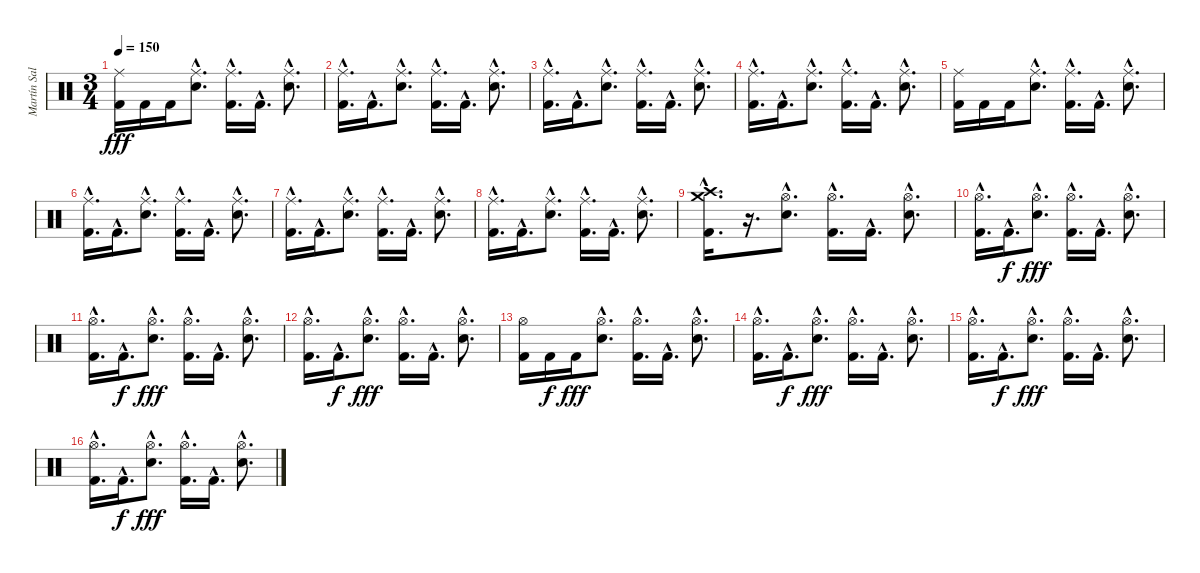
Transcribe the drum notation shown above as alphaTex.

\track ("Martín Salariato" "Martín Sal") {instrument percussion}
\staff {score}
\articulation defaults
\ts (3 4)
\tempo 150
\clef neutral
\ks c
("Ride (middle)" "Kick (hit) 2").16{dy fff} "Kick (hit) 2".16 "Kick (hit) 2".16 ("Ride (middle)"{hac} "Snare (hit) 2"{hac}).8{d} ("Ride (middle)"{hac} "Kick (hit) 2"{hac}).16{d} "Kick (hit) 2"{hac}.16{d} ("Ride (middle)"{hac} "Snare (hit) 2"{hac}).8{d} |
("Ride (middle)"{hac} "Kick (hit) 2"{hac}).16{d} "Kick (hit) 2"{hac}.16{d} ("Ride (middle)"{hac} "Snare (hit) 2"{hac}).8{d} ("Ride (middle)"{hac} "Kick (hit) 2"{hac}).16{d} "Kick (hit) 2"{hac}.16{d} ("Ride (middle)"{hac} "Snare (hit) 2"{hac}).8{d} |
("Ride (middle)"{hac} "Kick (hit) 2"{hac}).16{d} "Kick (hit) 2"{hac}.16{d} ("Ride (middle)"{hac} "Snare (hit) 2"{hac}).8{d} ("Ride (middle)"{hac} "Kick (hit) 2"{hac}).16{d} "Kick (hit) 2"{hac}.16{d} ("Ride (middle)"{hac} "Snare (hit) 2"{hac}).8{d} |
("Ride (middle)"{hac} "Kick (hit) 2"{hac}).16{d} "Kick (hit) 2"{hac}.16{d} ("Ride (middle)"{hac} "Snare (hit) 2"{hac}).8{d} ("Ride (middle)"{hac} "Kick (hit) 2"{hac}).16{d} "Kick (hit) 2"{hac}.16{d} ("Ride (middle)"{hac} "Snare (hit) 2"{hac}).8{d} |
("Ride (middle)" "Kick (hit) 2").16 "Kick (hit) 2".16 "Kick (hit) 2".16 ("Ride (middle)"{hac} "Snare (hit) 2"{hac}).8{d} ("Ride (middle)"{hac} "Kick (hit) 2"{hac}).16{d} "Kick (hit) 2"{hac}.16{d} ("Ride (middle)"{hac} "Snare (hit) 2"{hac}).8{d} |
("Ride (middle)"{hac} "Kick (hit) 2"{hac}).16{d} "Kick (hit) 2"{hac}.16{d} ("Ride (middle)"{hac} "Snare (hit) 2"{hac}).8{d} ("Ride (middle)"{hac} "Kick (hit) 2"{hac}).16{d} "Kick (hit) 2"{hac}.16{d} ("Ride (middle)"{hac} "Snare (hit) 2"{hac}).8{d} |
("Ride (middle)"{hac} "Kick (hit) 2"{hac}).16{d} "Kick (hit) 2"{hac}.16{d} ("Ride (middle)"{hac} "Snare (hit) 2"{hac}).8{d} ("Ride (middle)"{hac} "Kick (hit) 2"{hac}).16{d} "Kick (hit) 2"{hac}.16{d} ("Ride (middle)"{hac} "Snare (hit) 2"{hac}).8{d} |
("Ride (middle)"{hac} "Kick (hit) 2"{hac}).16{d} "Kick (hit) 2"{hac}.16{d} ("Ride (middle)"{hac} "Snare (hit) 2"{hac}).8{d} ("Ride (middle)"{hac} "Kick (hit) 2"{hac}).16{d} "Kick (hit) 2"{hac}.16{d} ("Ride (middle)"{hac} "Snare (hit) 2"{hac}).8{d} |
("Crash medium (hit)"{hac} "Crash high (hit)"{hac} "Kick (hit) 2"{hac}).16{d} r.16{d} ("Hi-Hat (open)"{hac} "Snare (hit) 2"{hac}).8{d} ("Hi-Hat (open)"{hac} "Kick (hit) 2"{hac}).16{d} "Kick (hit) 2"{hac}.16{d} ("Hi-Hat (open)"{hac} "Snare (hit) 2"{hac}).8{d} |
("Hi-Hat (open)"{hac} "Kick (hit) 2"{hac}).16{d} "Kick (hit) 2"{hac}.16{d dy f} ("Hi-Hat (open)"{hac} "Snare (hit) 2"{hac}).8{d dy fff} ("Hi-Hat (open)"{hac} "Kick (hit) 2"{hac}).16{d} "Kick (hit) 2"{hac}.16{d} ("Hi-Hat (open)"{hac} "Snare (hit) 2"{hac}).8{d} |
("Hi-Hat (open)"{hac} "Kick (hit) 2"{hac}).16{d} "Kick (hit) 2"{hac}.16{d dy f} ("Hi-Hat (open)"{hac} "Snare (hit) 2"{hac}).8{d dy fff} ("Hi-Hat (open)"{hac} "Kick (hit) 2"{hac}).16{d} "Kick (hit) 2"{hac}.16{d} ("Hi-Hat (open)"{hac} "Snare (hit) 2"{hac}).8{d} |
("Hi-Hat (open)"{hac} "Kick (hit) 2"{hac}).16{d} "Kick (hit) 2"{hac}.16{d dy f} ("Hi-Hat (open)"{hac} "Snare (hit) 2"{hac}).8{d dy fff} ("Hi-Hat (open)"{hac} "Kick (hit) 2"{hac}).16{d} "Kick (hit) 2"{hac}.16{d} ("Hi-Hat (open)"{hac} "Snare (hit) 2"{hac}).8{d} |
("Hi-Hat (open)" "Kick (hit) 2").16 "Kick (hit) 2".16{dy f} "Kick (hit) 2".16{dy fff} ("Hi-Hat (open)"{hac} "Snare (hit) 2"{hac}).8{d} ("Hi-Hat (open)"{hac} "Kick (hit) 2"{hac}).16{d} "Kick (hit) 2"{hac}.16{d} ("Hi-Hat (open)"{hac} "Snare (hit) 2"{hac}).8{d} |
("Hi-Hat (open)"{hac} "Kick (hit) 2"{hac}).16{d} "Kick (hit) 2"{hac}.16{d dy f} ("Hi-Hat (open)"{hac} "Snare (hit) 2"{hac}).8{d dy fff} ("Hi-Hat (open)"{hac} "Kick (hit) 2"{hac}).16{d} "Kick (hit) 2"{hac}.16{d} ("Hi-Hat (open)"{hac} "Snare (hit) 2"{hac}).8{d} |
("Hi-Hat (open)"{hac} "Kick (hit) 2"{hac}).16{d} "Kick (hit) 2"{hac}.16{d dy f} ("Hi-Hat (open)"{hac} "Snare (hit) 2"{hac}).8{d dy fff} ("Hi-Hat (open)"{hac} "Kick (hit) 2"{hac}).16{d} "Kick (hit) 2"{hac}.16{d} ("Hi-Hat (open)"{hac} "Snare (hit) 2"{hac}).8{d} |
("Hi-Hat (open)"{hac} "Kick (hit) 2"{hac}).16{d} "Kick (hit) 2"{hac}.16{d dy f} ("Hi-Hat (open)"{hac} "Snare (hit) 2"{hac}).8{d dy fff} ("Hi-Hat (open)"{hac} "Kick (hit) 2"{hac}).16{d} "Kick (hit) 2"{hac}.16{d} ("Hi-Hat (open)"{hac} "Snare (hit) 2"{hac}).8{d}
